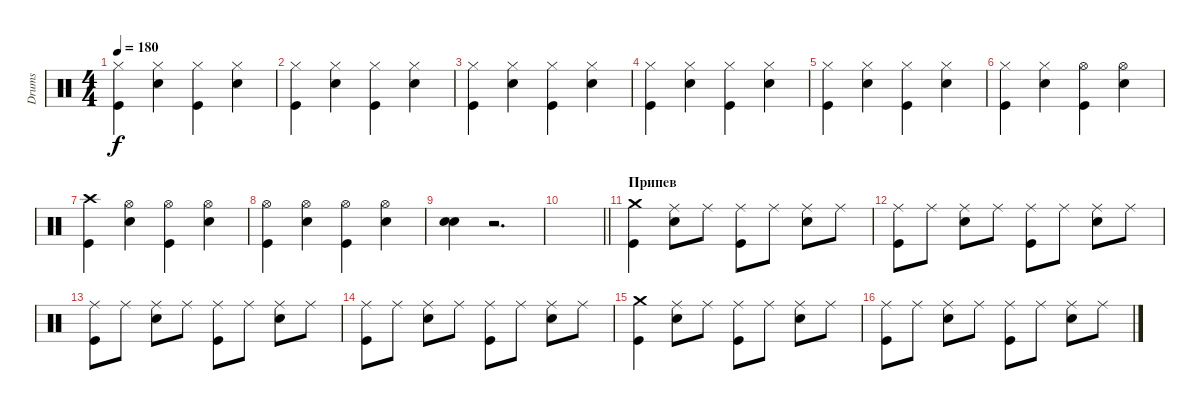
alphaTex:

\track ("Drums" "Drums") {instrument percussion}
\staff {score}
\articulation defaults
\ts (4 4)
\tempo 180
\clef neutral
\ks c
("Kick (hit)" "Hi-Hat (closed)").4{dy f} ("Snare (hit) 2" "Hi-Hat (closed)").4 ("Kick (hit)" "Hi-Hat (closed)").4 ("Snare (hit) 2" "Hi-Hat (closed)").4 |
("Kick (hit)" "Hi-Hat (closed)").4 ("Snare (hit) 2" "Hi-Hat (closed)").4 ("Kick (hit)" "Hi-Hat (closed)").4 ("Snare (hit) 2" "Hi-Hat (closed)").4 |
("Kick (hit)" "Hi-Hat (closed)").4 ("Snare (hit) 2" "Hi-Hat (closed)").4 ("Kick (hit)" "Hi-Hat (closed)").4 ("Snare (hit) 2" "Hi-Hat (closed)").4 |
("Kick (hit)" "Hi-Hat (closed)").4 ("Snare (hit) 2" "Hi-Hat (closed)").4 ("Kick (hit)" "Hi-Hat (closed)").4 ("Snare (hit) 2" "Hi-Hat (closed)").4 |
("Kick (hit)" "Hi-Hat (closed)").4 ("Snare (hit) 2" "Hi-Hat (closed)").4 ("Kick (hit)" "Hi-Hat (closed)").4 ("Snare (hit) 2" "Hi-Hat (closed)").4 |
("Kick (hit)" "Hi-Hat (closed)").4 ("Snare (hit) 2" "Hi-Hat (closed)").4 ("Kick (hit)" "Hi-Hat (open)").4 ("Snare (hit) 2" "Hi-Hat (open)").4 |
("Kick (hit)" "Crash high (hit)").4 ("Snare (hit) 2" "Hi-Hat (open)").4 ("Kick (hit)" "Hi-Hat (open)").4 ("Snare (hit) 2" "Hi-Hat (open)").4 |
("Kick (hit)" "Hi-Hat (open)").4 ("Snare (hit) 2" "Hi-Hat (open)").4 ("Kick (hit)" "Hi-Hat (open)").4 ("Snare (hit) 2" "Hi-Hat (open)").4 |
("Snare (hit) 2" "Snare (hit) 2").4 r.2{d} |
\barLineRight lightlight
|
\section ("" "Припев")
("Kick (hit)" "Crash medium (hit)").4 ("Snare (hit) 2" "Ride (middle)").8 "Ride (middle)".8 ("Kick (hit)" "Ride (middle)").8 "Ride (middle)".8 ("Snare (hit) 2" "Ride (middle)").8 "Ride (middle)".8 |
("Kick (hit)" "Ride (middle)").8 "Ride (middle)".8 ("Snare (hit) 2" "Ride (middle)").8 "Ride (middle)".8 ("Kick (hit)" "Ride (middle)").8 "Ride (middle)".8 ("Snare (hit) 2" "Ride (middle)").8 "Ride (middle)".8 |
("Kick (hit)" "Ride (middle)").8 "Ride (middle)".8 ("Snare (hit) 2" "Ride (middle)").8 "Ride (middle)".8 ("Kick (hit)" "Ride (middle)").8 "Ride (middle)".8 ("Snare (hit) 2" "Ride (middle)").8 "Ride (middle)".8 |
("Kick (hit)" "Ride (middle)").8 "Ride (middle)".8 ("Snare (hit) 2" "Ride (middle)").8 "Ride (middle)".8 ("Kick (hit)" "Ride (middle)").8 "Ride (middle)".8 ("Snare (hit) 2" "Ride (middle)").8 "Ride (middle)".8 |
("Kick (hit)" "Crash medium (hit)").4 ("Snare (hit) 2" "Ride (middle)").8 "Ride (middle)".8 ("Kick (hit)" "Ride (middle)").8 "Ride (middle)".8 ("Snare (hit) 2" "Ride (middle)").8 "Ride (middle)".8 |
("Kick (hit)" "Ride (middle)").8 "Ride (middle)".8 ("Snare (hit) 2" "Ride (middle)").8 "Ride (middle)".8 ("Kick (hit)" "Ride (middle)").8 "Ride (middle)".8 ("Snare (hit) 2" "Ride (middle)").8 "Ride (middle)".8
